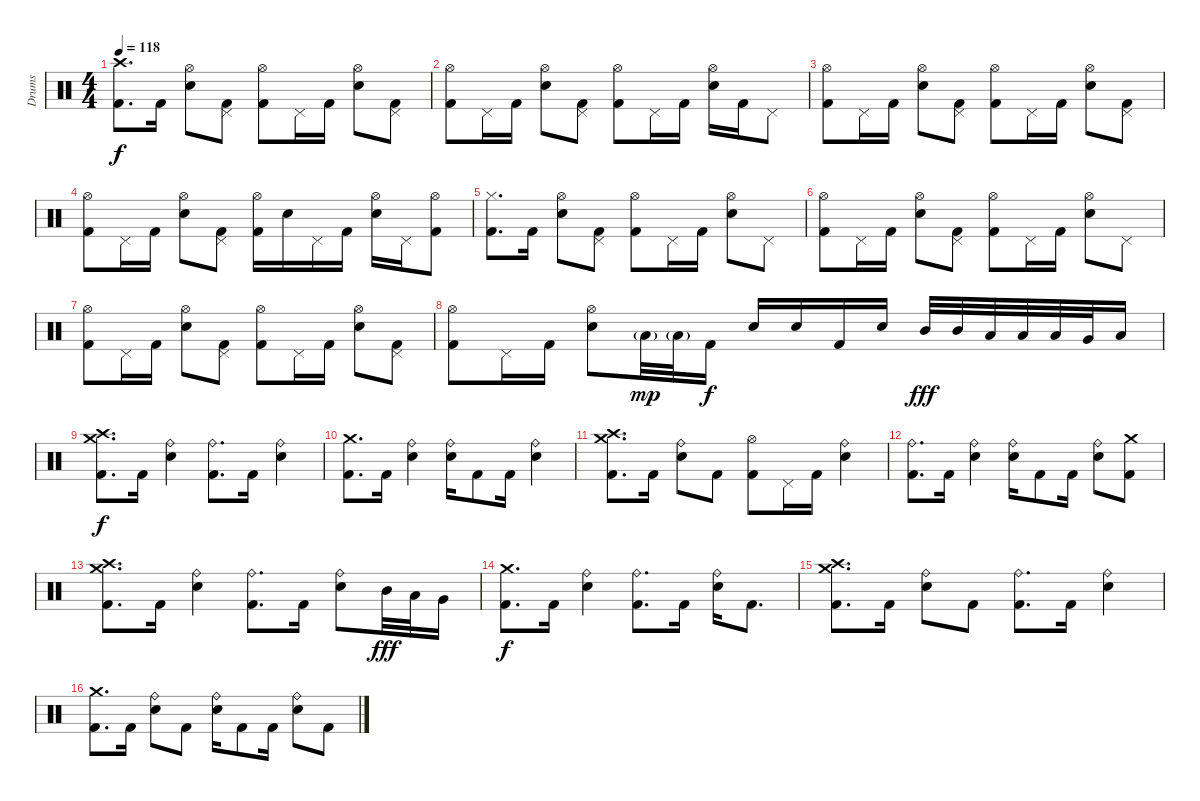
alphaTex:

\track ("Drums" "Drums") {instrument percussion}
\staff {score}
\articulation defaults
\ts (4 4)
\tempo 118
\clef neutral
\ks c
("Crash high (hit)" "Kick (hit) 2").8{d dy f} "Kick (hit) 2".16 ("Hi-Hat (open)" "Electric Snare (hit)").8 ("Pedal Hi-Hat (hit)" "Kick (hit) 2").8 ("Hi-Hat (open)" "Kick (hit) 2").8 "Pedal Hi-Hat (hit)".16 "Kick (hit) 2".16 ("Hi-Hat (open)" "Electric Snare (hit)").8 ("Pedal Hi-Hat (hit)" "Kick (hit) 2").8 |
("Hi-Hat (open)" "Kick (hit) 2").8 "Pedal Hi-Hat (hit)".16 "Kick (hit) 2".16 ("Hi-Hat (open)" "Electric Snare (hit)").8 ("Pedal Hi-Hat (hit)" "Kick (hit) 2").8 ("Hi-Hat (open)" "Kick (hit) 2").8 "Pedal Hi-Hat (hit)".16 "Kick (hit) 2".16 ("Hi-Hat (open)" "Electric Snare (hit)").16 "Kick (hit) 2".16 "Pedal Hi-Hat (hit)".8 |
("Hi-Hat (open)" "Kick (hit) 2").8 "Pedal Hi-Hat (hit)".16 "Kick (hit) 2".16 ("Hi-Hat (open)" "Electric Snare (hit)").8 ("Pedal Hi-Hat (hit)" "Kick (hit) 2").8 ("Hi-Hat (open)" "Kick (hit) 2").8 "Pedal Hi-Hat (hit)".16 "Kick (hit) 2".16 ("Hi-Hat (open)" "Electric Snare (hit)").8 ("Pedal Hi-Hat (hit)" "Kick (hit) 2").8 |
("Hi-Hat (open)" "Kick (hit) 2").8 "Pedal Hi-Hat (hit)".16 "Kick (hit) 2".16 ("Hi-Hat (open)" "Electric Snare (hit)").8 ("Pedal Hi-Hat (hit)" "Kick (hit) 2").8 ("Hi-Hat (open)" "Kick (hit) 2").16 "Electric Snare (hit)".16 "Pedal Hi-Hat (hit)".16 "Kick (hit) 2".16 ("Hi-Hat (open)" "Electric Snare (hit)").16 "Pedal Hi-Hat (hit)".16 ("Hi-Hat (open)" "Kick (hit) 2").8 |
("Hi-Hat (closed)" "Kick (hit) 2").8{d} "Kick (hit) 2".16 ("Hi-Hat (open)" "Electric Snare (hit)").8 ("Pedal Hi-Hat (hit)" "Kick (hit) 2").8 ("Hi-Hat (open)" "Kick (hit) 2").8 "Pedal Hi-Hat (hit)".16 "Kick (hit) 2".16 ("Hi-Hat (open)" "Electric Snare (hit)").8 "Pedal Hi-Hat (hit)".8 |
("Hi-Hat (open)" "Kick (hit) 2").8 "Pedal Hi-Hat (hit)".16 "Kick (hit) 2".16 ("Hi-Hat (open)" "Electric Snare (hit)").8 ("Pedal Hi-Hat (hit)" "Kick (hit) 2").8 ("Hi-Hat (open)" "Kick (hit) 2").8 "Pedal Hi-Hat (hit)".16 "Kick (hit) 2".16 ("Hi-Hat (open)" "Electric Snare (hit)").8 "Pedal Hi-Hat (hit)".8 |
("Hi-Hat (open)" "Kick (hit) 2").8 "Pedal Hi-Hat (hit)".16 "Kick (hit) 2".16 ("Hi-Hat (open)" "Electric Snare (hit)").8 ("Pedal Hi-Hat (hit)" "Kick (hit) 2").8 ("Hi-Hat (open)" "Kick (hit) 2").8 "Pedal Hi-Hat (hit)".16 "Kick (hit) 2".16 ("Hi-Hat (open)" "Electric Snare (hit)").8 ("Pedal Hi-Hat (hit)" "Kick (hit) 2").8 |
("Hi-Hat (open)" "Kick (hit) 2").8 "Pedal Hi-Hat (hit)".16 "Kick (hit) 2".16 ("Hi-Hat (open)" "Electric Snare (hit)").8 "Low Tom (hit)"{g}.32{dy mp} "Low Tom (hit)"{g}.32 "Kick (hit) 2".16{dy f} "Electric Snare (hit)".16 "Electric Snare (hit)".16 "Kick (hit) 2".16 "Electric Snare (hit)".16 "Mid Tom (hit)".32{dy fff} "Mid Tom (hit)".32 "Low Tom (hit)".32 "Low Tom (hit)".32 "Low Tom (hit)".32 "Very Low Tom (hit)".32 "Low Tom (hit)".16 |
("Crash medium (hit)" "Crash high (hit)" "Kick (hit) 2").8{d dy f} "Kick (hit) 2".16 ("Ride (bell)" "Electric Snare (hit)").4 ("Ride (bell)" "Kick (hit) 2").8{d} "Kick (hit) 2".16 ("Ride (bell)" "Electric Snare (hit)").4 |
("Crash medium (hit)" "Kick (hit) 2").8{d} "Kick (hit) 2".16 ("Ride (bell)" "Electric Snare (hit)").4 ("Ride (bell)" "Electric Snare (hit)").16 "Kick (hit) 2".8 "Kick (hit) 2".16 ("Ride (bell)" "Electric Snare (hit)").4 |
("Crash high (hit)" "Crash medium (hit)" "Kick (hit) 2").8{d} "Kick (hit) 2".16 ("Ride (bell)" "Electric Snare (hit)").8 "Kick (hit) 2".8 ("Hi-Hat (open)" "Kick (hit) 2").8 "Pedal Hi-Hat (hit)".16 "Kick (hit) 2".16 ("Ride (bell)" "Electric Snare (hit)").4 |
("Ride (bell)" "Kick (hit) 2").8{d} "Kick (hit) 2".16 ("Ride (bell)" "Electric Snare (hit)").4 ("Ride (bell)" "Electric Snare (hit)").16 "Kick (hit) 2".8 "Kick (hit) 2".16 ("Ride (bell)" "Electric Snare (hit)").8 ("Crash medium (hit)" "Kick (hit) 2").8 |
("Crash medium (hit)" "Crash high (hit)" "Kick (hit) 2").8{d} "Kick (hit) 2".16 ("Ride (bell)" "Electric Snare (hit)").4 ("Ride (bell)" "Kick (hit) 2").8{d} "Kick (hit) 2".16 ("Ride (bell)" "Electric Snare (hit)").8 "Mid Tom (hit)".32{dy fff} "Low Tom (hit)".32 "Very Low Tom (hit)".16 |
("Crash medium (hit)" "Kick (hit) 2").8{d dy f} "Kick (hit) 2".16 ("Ride (bell)" "Electric Snare (hit)").4 ("Ride (bell)" "Kick (hit) 2").8{d} "Kick (hit) 2".16 ("Ride (bell)" "Electric Snare (hit)").16 "Kick (hit) 2".8{d} |
("Crash high (hit)" "Crash medium (hit)" "Kick (hit) 2").8{d} "Kick (hit) 2".16 ("Ride (bell)" "Electric Snare (hit)").8 "Kick (hit) 2".8 ("Ride (bell)" "Kick (hit) 2").8{d} "Kick (hit) 2".16 ("Ride (bell)" "Electric Snare (hit)").4 |
("Crash medium (hit)" "Kick (hit) 2").8{d} "Kick (hit) 2".16 ("Ride (bell)" "Electric Snare (hit)").8 "Kick (hit) 2".8 ("Ride (bell)" "Electric Snare (hit)").16 "Kick (hit) 2".8 "Kick (hit) 2".16 ("Ride (bell)" "Electric Snare (hit)").8 "Kick (hit) 2".8
